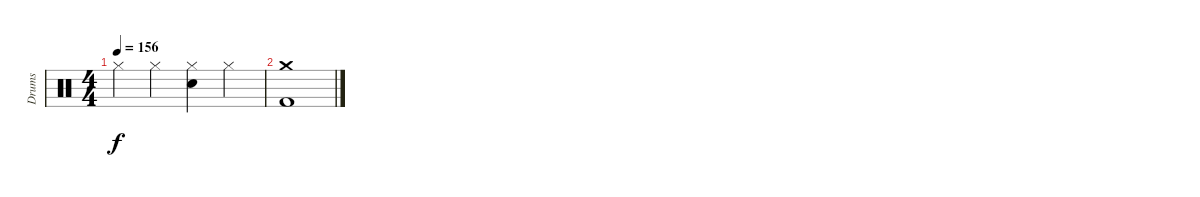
\track ("Drums" "Drums") {instrument percussion}
\staff {score}
\articulation defaults
\ts (4 4)
\tempo 156
\clef neutral
\ks c "Hi-Hat (closed)".4{dy f} "Hi-Hat (closed)".4
("Hi-Hat (closed)" "Electric Snare (hit)").4 "Hi-Hat (closed)".4 |
("Crash medium (hit)" "Kick (hit) 2").1
